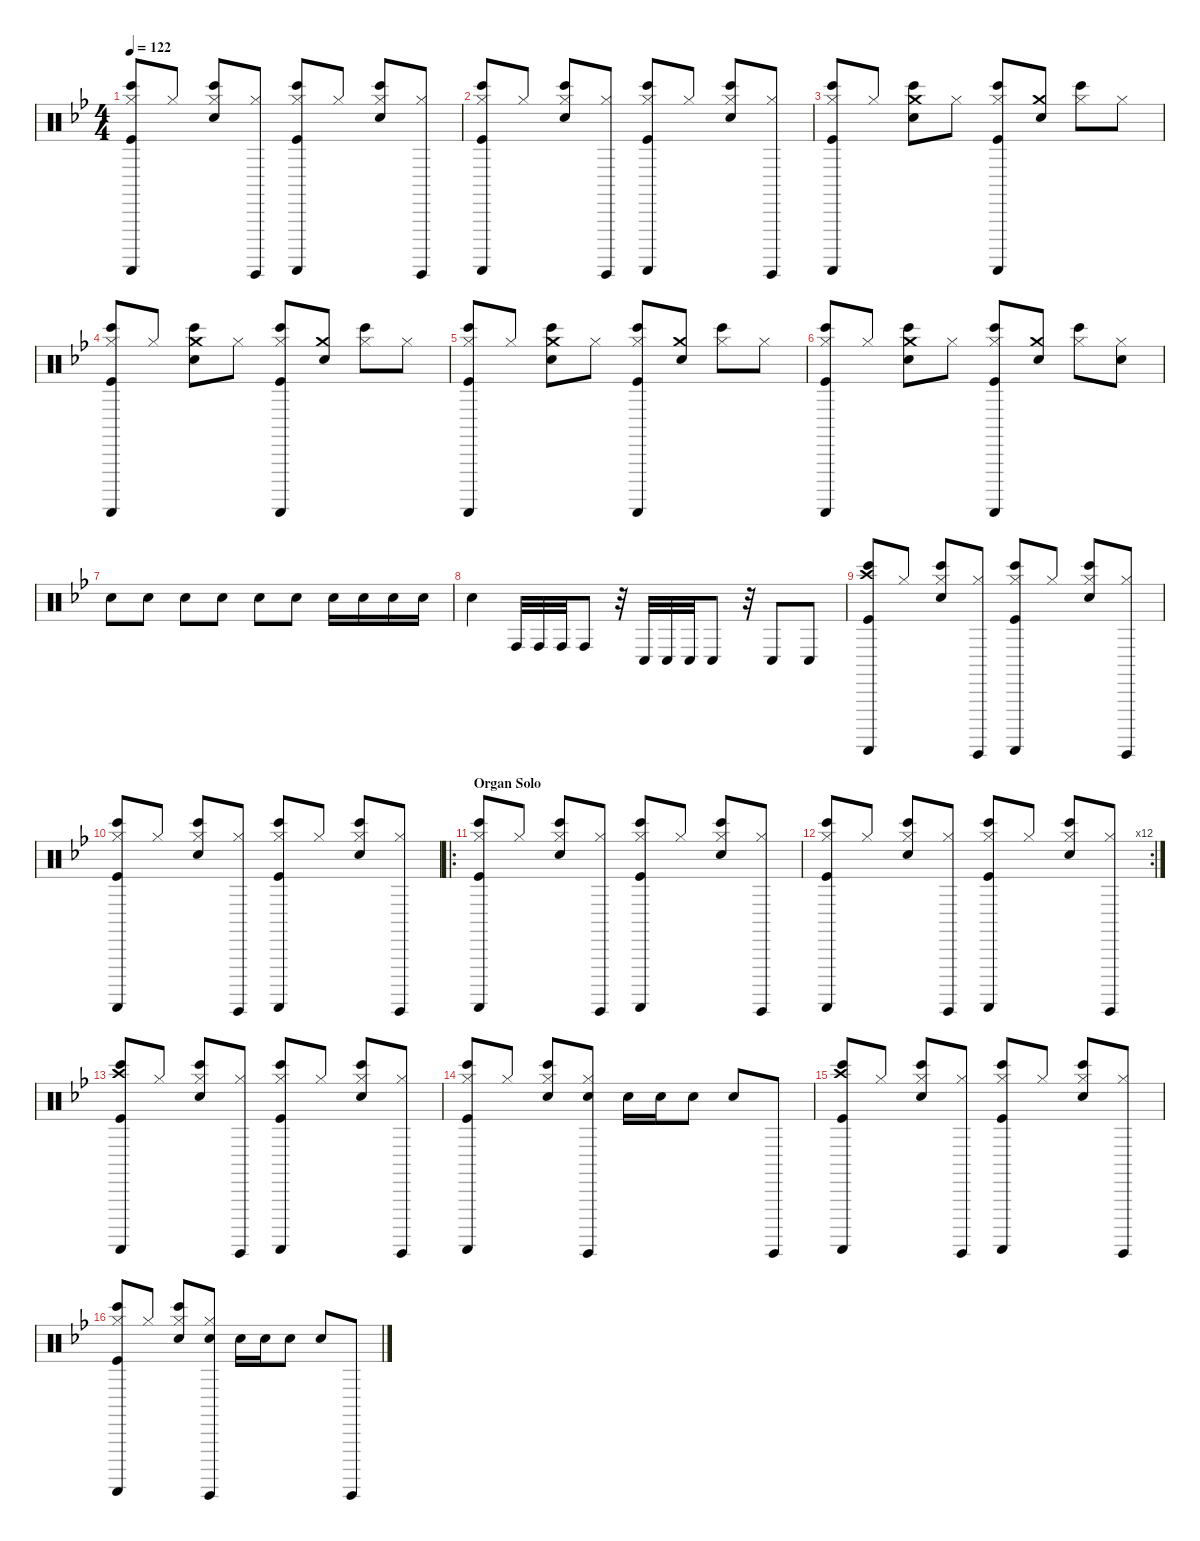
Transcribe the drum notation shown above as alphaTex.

\defaultSystemsLayout 4
\hideDynamics
\bracketExtendMode nobrackets
\singleTrackTrackNamePolicy hidden
\multiTrackTrackNamePolicy hidden
\firstSystemTrackNameMode fullname
\firstSystemTrackNameOrientation horizontal
\otherSystemsTrackNameOrientation horizontal
\track ("Percussions" "drm.") {instrument percussion}
\staff {score}
\articulation defaults
\ts (4 4)
\tempo 122
\clef neutral
\ks bb
("Hi-Hat (closed)"{acc forcenatural} "Bongo High (hit)"{acc forcenatural} "Guiro (scrap-return)"{acc forcenatural} "Kick (hit)"{acc forcenatural}).8{dy f beam Up} "Hi-Hat (closed)"{acc forcenatural}.8{dy mp beam Up} ("Hi-Hat (closed)"{acc forcenatural} "Bongo High (hit)"{acc forcenatural} "Snare (hit) 2"{acc forcenatural}).8{dy f beam Up} ("Hi-Hat (closed)"{acc forcenatural} "Guiro (hit)"{acc forcenatural}).8{dy mp beam Up} ("Hi-Hat (closed)"{acc forcenatural} "Bongo High (hit)"{acc forcenatural} "Guiro (scrap-return)"{acc forcenatural} "Kick (hit)"{acc forcenatural}).8{dy f beam Up} "Hi-Hat (closed)"{acc forcenatural}.8{dy mp beam Up} ("Hi-Hat (closed)"{acc forcenatural} "Bongo High (hit)"{acc forcenatural} "Snare (hit) 2"{acc forcenatural}).8{dy f beam Up} ("Hi-Hat (closed)"{acc forcenatural} "Guiro (hit)"{acc forcenatural}).8{dy mp beam Up} |
("Hi-Hat (closed)"{acc forcenatural} "Bongo High (hit)"{acc forcenatural} "Guiro (scrap-return)"{acc forcenatural} "Kick (hit)"{acc forcenatural}).8{dy f beam Up} "Hi-Hat (closed)"{acc forcenatural}.8{dy mp beam Up} ("Hi-Hat (closed)"{acc forcenatural} "Bongo High (hit)"{acc forcenatural} "Snare (hit) 2"{acc forcenatural}).8{dy f beam Up} ("Hi-Hat (closed)"{acc forcenatural} "Guiro (hit)"{acc forcenatural}).8{dy mp beam Up} ("Hi-Hat (closed)"{acc forcenatural} "Bongo High (hit)"{acc forcenatural} "Guiro (scrap-return)"{acc forcenatural} "Kick (hit)"{acc forcenatural}).8{dy f beam Up} "Hi-Hat (closed)"{acc forcenatural}.8{dy mp beam Up} ("Hi-Hat (closed)"{acc forcenatural} "Bongo High (hit)"{acc forcenatural} "Snare (hit) 2"{acc forcenatural}).8{dy f beam Up} ("Hi-Hat (closed)"{acc forcenatural} "Guiro (hit)"{acc forcenatural}).8{dy mp beam Up} |
("Hi-Hat (closed)"{acc forcenatural} "Bongo High (hit)"{acc forcenatural} "Guiro (scrap-return)"{acc forcenatural} "Kick (hit)"{acc forcenatural}).8{dy f beam Up} "Hi-Hat (closed)"{acc forcenatural}.8{dy mp beam Up} ("Crash medium (hit)"{acc forcenatural} "Bongo High (hit)"{acc forcenatural} "Snare (hit) 2"{acc forcenatural}).8{dy f beam Down} "Hi-Hat (closed)"{acc forcenatural}.8{dy mp beam Down} ("Hi-Hat (closed)"{acc forcenatural} "Bongo High (hit)"{acc forcenatural} "Guiro (scrap-return)"{acc forcenatural} "Kick (hit)"{acc forcenatural}).8{dy f beam Up} ("Crash medium (hit)"{acc forcenatural} "Snare (hit) 2"{acc forcenatural}).8{beam Up} ("Hi-Hat (closed)"{acc forcenatural} "Bongo High (hit)"{acc forcenatural}).8{beam Down} "Hi-Hat (closed)"{acc forcenatural}.8{dy mp beam Down} |
("Hi-Hat (closed)"{acc forcenatural} "Bongo High (hit)"{acc forcenatural} "Guiro (scrap-return)"{acc forcenatural} "Kick (hit)"{acc forcenatural}).8{dy f beam Up} "Hi-Hat (closed)"{acc forcenatural}.8{dy mp beam Up} ("Crash medium (hit)"{acc forcenatural} "Bongo High (hit)"{acc forcenatural} "Snare (hit) 2"{acc forcenatural}).8{dy f beam Down} "Hi-Hat (closed)"{acc forcenatural}.8{dy mp beam Down} ("Hi-Hat (closed)"{acc forcenatural} "Bongo High (hit)"{acc forcenatural} "Guiro (scrap-return)"{acc forcenatural} "Kick (hit)"{acc forcenatural}).8{dy f beam Up} ("Crash medium (hit)"{acc forcenatural} "Snare (hit) 2"{acc forcenatural}).8{beam Up} ("Hi-Hat (closed)"{acc forcenatural} "Bongo High (hit)"{acc forcenatural}).8{beam Down} "Hi-Hat (closed)"{acc forcenatural}.8{dy mp beam Down} |
("Hi-Hat (closed)"{acc forcenatural} "Bongo High (hit)"{acc forcenatural} "Guiro (scrap-return)"{acc forcenatural} "Kick (hit)"{acc forcenatural}).8{dy f beam Up} "Hi-Hat (closed)"{acc forcenatural}.8{dy mp beam Up} ("Crash medium (hit)"{acc forcenatural} "Bongo High (hit)"{acc forcenatural} "Snare (hit) 2"{acc forcenatural}).8{dy f beam Down} "Hi-Hat (closed)"{acc forcenatural}.8{dy mp beam Down} ("Hi-Hat (closed)"{acc forcenatural} "Bongo High (hit)"{acc forcenatural} "Guiro (scrap-return)"{acc forcenatural} "Kick (hit)"{acc forcenatural}).8{dy f beam Up} ("Crash medium (hit)"{acc forcenatural} "Snare (hit) 2"{acc forcenatural}).8{beam Up} ("Hi-Hat (closed)"{acc forcenatural} "Bongo High (hit)"{acc forcenatural}).8{beam Down} "Hi-Hat (closed)"{acc forcenatural}.8{dy mp beam Down} |
("Hi-Hat (closed)"{acc forcenatural} "Bongo High (hit)"{acc forcenatural} "Guiro (scrap-return)"{acc forcenatural} "Kick (hit)"{acc forcenatural}).8{dy f beam Up} "Hi-Hat (closed)"{acc forcenatural}.8{dy mp beam Up} ("Crash medium (hit)"{acc forcenatural} "Bongo High (hit)"{acc forcenatural} "Snare (hit) 2"{acc forcenatural}).8{dy f beam Down} "Hi-Hat (closed)"{acc forcenatural}.8{dy mp beam Down} ("Hi-Hat (closed)"{acc forcenatural} "Bongo High (hit)"{acc forcenatural} "Guiro (scrap-return)"{acc forcenatural} "Kick (hit)"{acc forcenatural}).8{dy f beam Up} ("Crash medium (hit)"{acc forcenatural} "Snare (hit) 2"{acc forcenatural}).8{beam Up} ("Hi-Hat (closed)"{acc forcenatural} "Bongo High (hit)"{acc forcenatural}).8{beam Down} ("Hi-Hat (closed)"{acc forcenatural} "Snare (hit) 2"{acc forcenatural}).8{dy mp beam Down} |
"Snare (hit) 2"{acc forcenatural}.8{beam Down} "Snare (hit) 2"{acc forcenatural}.8{beam Down} "Snare (hit) 2"{acc forcenatural}.8{beam Down} "Snare (hit) 2"{acc forcenatural}.8{beam Down} "Snare (hit) 2"{acc forcenatural}.8{dy mf beam Down} "Snare (hit) 2"{acc forcenatural}.8{beam Down} "Snare (hit) 2"{acc forcenatural}.16{dy f beam Down} "Snare (hit) 2"{acc forcenatural}.16{beam Down} "Snare (hit) 2"{acc forcenatural}.16{beam Down} "Snare (hit) 2"{acc forcenatural}.16{beam Down} |
"Snare (hit) 2"{acc forcenatural}.4{beam Down} "Conga high (hit)"{acc forcenatural}.32{dy ff beam Up} "Conga high (hit)"{acc forcenatural}.32{beam Up} "Conga high (hit)"{acc forcenatural}.32{beam Up} "Conga high (hit)"{acc forcenatural}.8{dy f beam Up} r.32{beam Up} "Conga low (hit)"{acc forcenatural}.32{dy ff beam Up} "Conga low (hit)"{acc forcenatural}.32{beam Up} "Conga low (hit)"{acc forcenatural}.32{beam Up} "Conga low (hit)"{acc forcenatural}.8{beam Up} r.32{beam Up} "Conga low (hit)"{acc forcenatural}.8{beam Up} "Conga low (hit)"{acc forcenatural}.8{beam Up} |
("Crash high (hit)"{acc forcenatural} "Bongo High (hit)"{acc forcenatural} "Guiro (scrap-return)"{acc forcenatural} "Kick (hit)"{acc forcenatural}).8{dy f beam Up} "Hi-Hat (closed)"{acc forcenatural}.8{dy mp beam Up} ("Hi-Hat (closed)"{acc forcenatural} "Bongo High (hit)"{acc forcenatural} "Snare (hit) 2"{acc forcenatural}).8{dy f beam Up} ("Hi-Hat (closed)"{acc forcenatural} "Guiro (hit)"{acc forcenatural}).8{dy mp beam Up} ("Hi-Hat (closed)"{acc forcenatural} "Bongo High (hit)"{acc forcenatural} "Guiro (scrap-return)"{acc forcenatural} "Kick (hit)"{acc forcenatural}).8{dy f beam Up} "Hi-Hat (closed)"{acc forcenatural}.8{dy mp beam Up} ("Hi-Hat (closed)"{acc forcenatural} "Bongo High (hit)"{acc forcenatural} "Snare (hit) 2"{acc forcenatural}).8{dy f beam Up} ("Hi-Hat (closed)"{acc forcenatural} "Guiro (hit)"{acc forcenatural}).8{dy mp beam Up} |
("Hi-Hat (closed)"{acc forcenatural} "Bongo High (hit)"{acc forcenatural} "Guiro (scrap-return)"{acc forcenatural} "Kick (hit)"{acc forcenatural}).8{dy f beam Up} "Hi-Hat (closed)"{acc forcenatural}.8{dy mp beam Up} ("Hi-Hat (closed)"{acc forcenatural} "Bongo High (hit)"{acc forcenatural} "Snare (hit) 2"{acc forcenatural}).8{dy f beam Up} ("Hi-Hat (closed)"{acc forcenatural} "Guiro (hit)"{acc forcenatural}).8{dy mp beam Up} ("Hi-Hat (closed)"{acc forcenatural} "Bongo High (hit)"{acc forcenatural} "Guiro (scrap-return)"{acc forcenatural} "Kick (hit)"{acc forcenatural}).8{dy f beam Up} "Hi-Hat (closed)"{acc forcenatural}.8{dy mp beam Up} ("Hi-Hat (closed)"{acc forcenatural} "Bongo High (hit)"{acc forcenatural} "Snare (hit) 2"{acc forcenatural}).8{dy f beam Up} ("Hi-Hat (closed)"{acc forcenatural} "Guiro (hit)"{acc forcenatural}).8{dy mp beam Up} |
\ro
\section ("" "Organ Solo")
("Hi-Hat (closed)"{acc forcenatural} "Bongo High (hit)"{acc forcenatural} "Guiro (scrap-return)"{acc forcenatural} "Kick (hit)"{acc forcenatural}).8{dy f beam Up} "Hi-Hat (closed)"{acc forcenatural}.8{dy mp beam Up} ("Hi-Hat (closed)"{acc forcenatural} "Bongo High (hit)"{acc forcenatural} "Snare (hit) 2"{acc forcenatural}).8{dy f beam Up} ("Hi-Hat (closed)"{acc forcenatural} "Guiro (hit)"{acc forcenatural}).8{dy mp beam Up} ("Hi-Hat (closed)"{acc forcenatural} "Bongo High (hit)"{acc forcenatural} "Guiro (scrap-return)"{acc forcenatural} "Kick (hit)"{acc forcenatural}).8{dy f beam Up} "Hi-Hat (closed)"{acc forcenatural}.8{dy mp beam Up} ("Hi-Hat (closed)"{acc forcenatural} "Bongo High (hit)"{acc forcenatural} "Snare (hit) 2"{acc forcenatural}).8{dy f beam Up} ("Hi-Hat (closed)"{acc forcenatural} "Guiro (hit)"{acc forcenatural}).8{dy mp beam Up} |
\rc 12
("Hi-Hat (closed)"{acc forcenatural} "Bongo High (hit)"{acc forcenatural} "Guiro (scrap-return)"{acc forcenatural} "Kick (hit)"{acc forcenatural}).8{dy f beam Up} "Hi-Hat (closed)"{acc forcenatural}.8{dy mp beam Up} ("Hi-Hat (closed)"{acc forcenatural} "Bongo High (hit)"{acc forcenatural} "Snare (hit) 2"{acc forcenatural}).8{dy f beam Up} ("Hi-Hat (closed)"{acc forcenatural} "Guiro (hit)"{acc forcenatural}).8{dy mp beam Up} ("Hi-Hat (closed)"{acc forcenatural} "Bongo High (hit)"{acc forcenatural} "Guiro (scrap-return)"{acc forcenatural} "Kick (hit)"{acc forcenatural}).8{dy f beam Up} "Hi-Hat (closed)"{acc forcenatural}.8{dy mp beam Up} ("Hi-Hat (closed)"{acc forcenatural} "Bongo High (hit)"{acc forcenatural} "Snare (hit) 2"{acc forcenatural}).8{dy f beam Up} ("Hi-Hat (closed)"{acc forcenatural} "Guiro (hit)"{acc forcenatural}).8{dy mp beam Up} |
("Crash high (hit)"{acc forcenatural} "Bongo High (hit)"{acc forcenatural} "Guiro (scrap-return)"{acc forcenatural} "Kick (hit)"{acc forcenatural}).8{dy f beam Up} "Hi-Hat (closed)"{acc forcenatural}.8{dy mp beam Up} ("Hi-Hat (closed)"{acc forcenatural} "Bongo High (hit)"{acc forcenatural} "Snare (hit) 2"{acc forcenatural}).8{dy f beam Up} ("Hi-Hat (closed)"{acc forcenatural} "Guiro (hit)"{acc forcenatural}).8{dy mp beam Up} ("Hi-Hat (closed)"{acc forcenatural} "Bongo High (hit)"{acc forcenatural} "Guiro (scrap-return)"{acc forcenatural} "Kick (hit)"{acc forcenatural}).8{dy f beam Up} "Hi-Hat (closed)"{acc forcenatural}.8{dy mp beam Up} ("Hi-Hat (closed)"{acc forcenatural} "Bongo High (hit)"{acc forcenatural} "Snare (hit) 2"{acc forcenatural}).8{dy f beam Up} ("Hi-Hat (closed)"{acc forcenatural} "Guiro (hit)"{acc forcenatural}).8{dy mp beam Up} |
("Hi-Hat (closed)"{acc forcenatural} "Bongo High (hit)"{acc forcenatural} "Guiro (scrap-return)"{acc forcenatural} "Kick (hit)"{acc forcenatural}).8{dy f beam Up} "Hi-Hat (closed)"{acc forcenatural}.8{dy mp beam Up} ("Hi-Hat (closed)"{acc forcenatural} "Bongo High (hit)"{acc forcenatural} "Snare (hit) 2"{acc forcenatural}).8{dy f beam Up} ("Hi-Hat (closed)"{acc forcenatural} "Guiro (hit)"{acc forcenatural} "Snare (hit) 2"{acc forcenatural}).8{dy mp beam Up} "Snare (hit) 2"{acc forcenatural}.16{dy f beam Down} "Snare (hit) 2"{acc forcenatural}.16{beam Down} "Snare (hit) 2"{acc forcenatural}.8{beam Down} "Snare (hit) 2"{acc forcenatural}.8{beam Up} "Guiro (hit)"{acc forcenatural}.8{beam Up} |
("Crash high (hit)"{acc forcenatural} "Bongo High (hit)"{acc forcenatural} "Guiro (scrap-return)"{acc forcenatural} "Kick (hit)"{acc forcenatural}).8{beam Up} "Hi-Hat (closed)"{acc forcenatural}.8{dy mp beam Up} ("Hi-Hat (closed)"{acc forcenatural} "Bongo High (hit)"{acc forcenatural} "Snare (hit) 2"{acc forcenatural}).8{dy f beam Up} ("Hi-Hat (closed)"{acc forcenatural} "Guiro (hit)"{acc forcenatural}).8{dy mp beam Up} ("Hi-Hat (closed)"{acc forcenatural} "Bongo High (hit)"{acc forcenatural} "Guiro (scrap-return)"{acc forcenatural} "Kick (hit)"{acc forcenatural}).8{dy f beam Up} "Hi-Hat (closed)"{acc forcenatural}.8{dy mp beam Up} ("Hi-Hat (closed)"{acc forcenatural} "Bongo High (hit)"{acc forcenatural} "Snare (hit) 2"{acc forcenatural}).8{dy f beam Up} ("Hi-Hat (closed)"{acc forcenatural} "Guiro (hit)"{acc forcenatural}).8{dy mp beam Up} |
("Hi-Hat (closed)"{acc forcenatural} "Bongo High (hit)"{acc forcenatural} "Guiro (scrap-return)"{acc forcenatural} "Kick (hit)"{acc forcenatural}).8{dy f beam Up} "Hi-Hat (closed)"{acc forcenatural}.8{dy mp beam Up} ("Hi-Hat (closed)"{acc forcenatural} "Bongo High (hit)"{acc forcenatural} "Snare (hit) 2"{acc forcenatural}).8{dy f beam Up} ("Hi-Hat (closed)"{acc forcenatural} "Guiro (hit)"{acc forcenatural} "Snare (hit) 2"{acc forcenatural}).8{dy mp beam Up} "Snare (hit) 2"{acc forcenatural}.16{dy f beam Down} "Snare (hit) 2"{acc forcenatural}.16{beam Down} "Snare (hit) 2"{acc forcenatural}.8{beam Down} "Snare (hit) 2"{acc forcenatural}.8{beam Up} "Guiro (hit)"{acc forcenatural}.8{beam Up}
